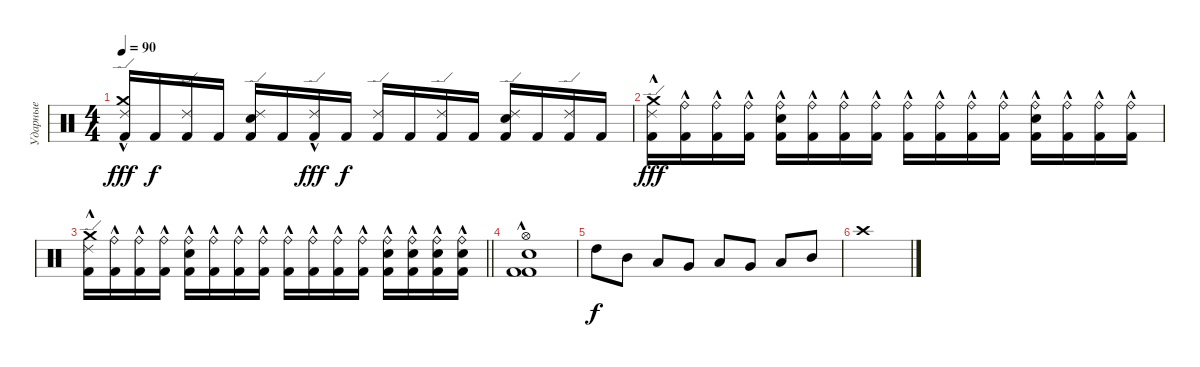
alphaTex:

\track ("Ударные" "Ударные") {instrument percussion}
\staff {score}
\articulation defaults
\ts (4 4)
\tempo 90
\clef neutral
\ks c
("Ride (edge) 2" "Crash medium (hit)" "Kick (hit) 2"{hac}).16{dy fff} "Kick (hit) 2".16{dy f} ("Ride (edge) 2" "Kick (hit) 2").16 "Kick (hit) 2".16 ("Ride (edge) 2" "Snare (hit) 2" "Kick (hit) 2").16 "Kick (hit) 2".16 ("Ride (edge) 2" "Kick (hit) 2"{hac}).16{dy fff} "Kick (hit) 2".16{dy f} ("Ride (edge) 2" "Kick (hit) 2").16 "Kick (hit) 2".16 ("Ride (edge) 2" "Kick (hit) 2").16 "Kick (hit) 2".16 ("Ride (edge) 2" "Snare (hit) 2" "Kick (hit) 2").16 "Kick (hit) 2".16 ("Ride (edge) 2" "Kick (hit) 2").16 "Kick (hit) 2".16 |
("Ride (edge) 2" "Crash medium (hit)" "Kick (hit) 2"{hac}).16{dy fff} ("Kick (hit) 2"{hac} "Ride (bell)").16 ("Kick (hit) 2"{hac} "Ride (bell)").16 ("Kick (hit) 2"{hac} "Ride (bell)").16 ("Ride (bell)" "Snare (hit) 2" "Kick (hit) 2"{hac}).16 ("Kick (hit) 2"{hac} "Ride (bell)").16 ("Kick (hit) 2"{hac} "Ride (bell)").16 ("Kick (hit) 2"{hac} "Ride (bell)").16 ("Kick (hit) 2"{hac} "Ride (bell)").16 ("Kick (hit) 2"{hac} "Ride (bell)").16 ("Kick (hit) 2"{hac} "Ride (bell)").16 ("Kick (hit) 2"{hac} "Ride (bell)").16 ("Ride (bell)" "Snare (hit) 2" "Kick (hit) 2"{hac}).16 ("Kick (hit) 2"{hac} "Ride (bell)").16 ("Kick (hit) 2"{hac} "Ride (bell)").16 ("Kick (hit) 2"{hac} "Ride (bell)").16 |
\barLineRight lightlight
("Ride (edge) 2" "Crash medium (hit)" "Kick (hit) 2"{hac}).16 ("Kick (hit) 2"{hac} "Ride (bell)").16 ("Kick (hit) 2"{hac} "Ride (bell)").16 ("Kick (hit) 2"{hac} "Ride (bell)").16 ("Ride (bell)" "Snare (hit) 2" "Kick (hit) 2"{hac}).16 ("Kick (hit) 2"{hac} "Ride (bell)").16 ("Kick (hit) 2"{hac} "Ride (bell)").16 ("Kick (hit) 2"{hac} "Ride (bell)").16 ("Kick (hit) 2"{hac} "Ride (bell)").16 ("Kick (hit) 2"{hac} "Ride (bell)").16 ("Kick (hit) 2"{hac} "Ride (bell)").16 ("Kick (hit) 2"{hac} "Ride (bell)").16 ("Ride (bell)" "Snare (hit) 2" "Kick (hit) 2"{hac}).16 ("Ride (bell)" "Snare (hit) 2" "Kick (hit) 2"{hac}).16 ("Ride (bell)" "Snare (hit) 2" "Kick (hit) 2"{hac}).16 ("Ride (bell)" "Snare (hit) 2" "Kick (hit) 2"{hac}).16 |
("Hi-Hat (open)" "Kick (hit) 2"{hac} "Kick (hit) 2" "Snare (hit) 2").1 |
"High Tom (hit)".8{dy f} "Mid Tom (hit)".8 "Low Tom (hit)".8 "Very Low Tom (hit)".8 "Low Floor Tom (hit)".8 "Very Low Tom (hit)".8 "Low Tom (hit)".8 "Mid Tom (hit)".8 |
"Crash high (hit)".1
